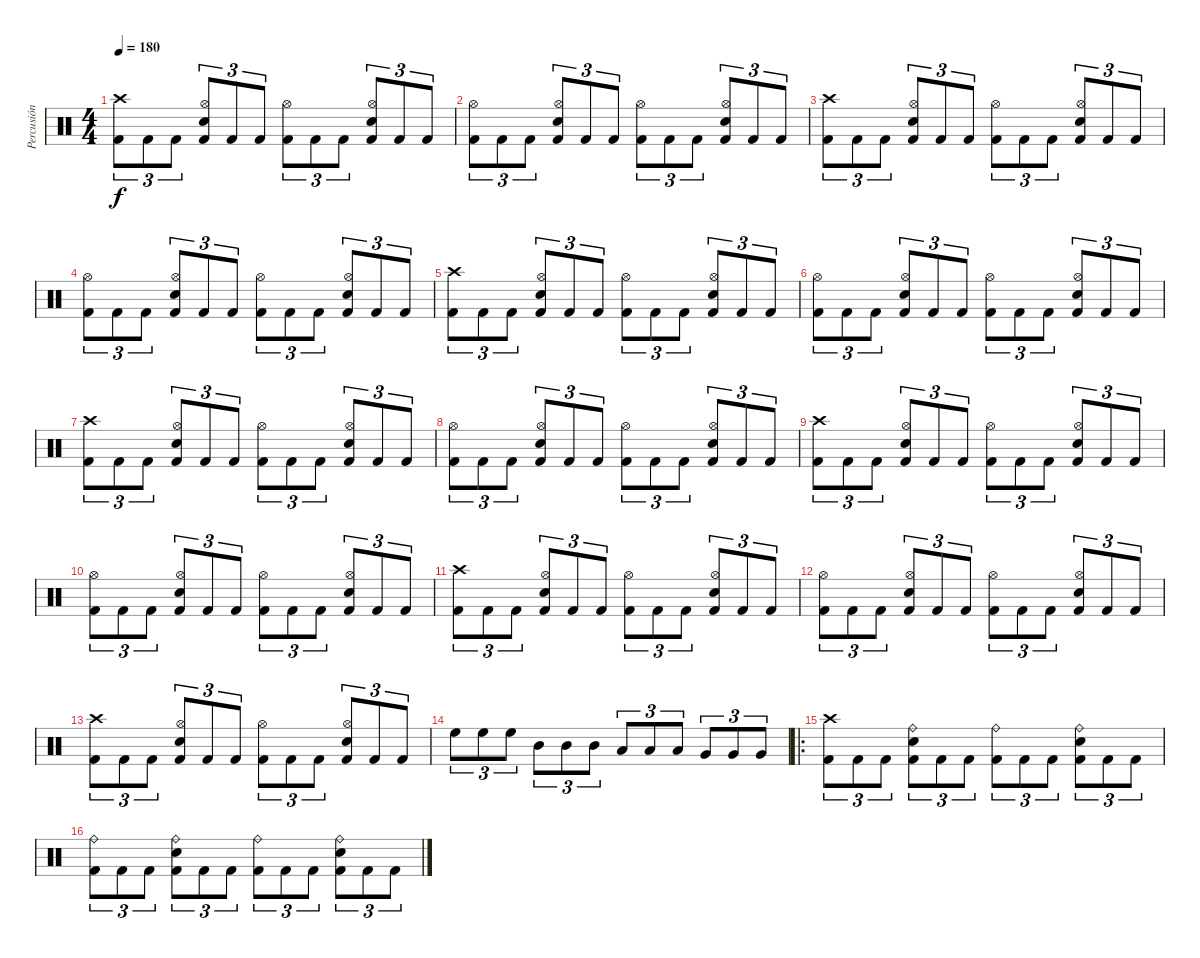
\track ("Percusión" "Percusión") {instrument percussion}
\staff {score}
\articulation defaults
\ts (4 4)
\tempo 180
\clef neutral
\ks c
("Crash high (hit)" "Kick (hit) 2").8{tu (3 2) dy f} "Kick (hit) 2".8{tu (3 2)} "Kick (hit) 2".8{tu (3 2)} ("Hi-Hat (open)" "Kick (hit) 2" "Electric Snare (hit)").8{tu (3 2)} "Kick (hit) 2".8{tu (3 2)} "Kick (hit) 2".8{tu (3 2)} ("Hi-Hat (open)" "Kick (hit) 2").8{tu (3 2)} "Kick (hit) 2".8{tu (3 2)} "Kick (hit) 2".8{tu (3 2)} ("Hi-Hat (open)" "Kick (hit) 2" "Electric Snare (hit)").8{tu (3 2)} "Kick (hit) 2".8{tu (3 2)} "Kick (hit) 2".8{tu (3 2)} |
("Hi-Hat (open)" "Kick (hit) 2").8{tu (3 2)} "Kick (hit) 2".8{tu (3 2)} "Kick (hit) 2".8{tu (3 2)} ("Hi-Hat (open)" "Kick (hit) 2" "Electric Snare (hit)").8{tu (3 2)} "Kick (hit) 2".8{tu (3 2)} "Kick (hit) 2".8{tu (3 2)} ("Hi-Hat (open)" "Kick (hit) 2").8{tu (3 2)} "Kick (hit) 2".8{tu (3 2)} "Kick (hit) 2".8{tu (3 2)} ("Hi-Hat (open)" "Kick (hit) 2" "Electric Snare (hit)").8{tu (3 2)} "Kick (hit) 2".8{tu (3 2)} "Kick (hit) 2".8{tu (3 2)} |
("Crash high (hit)" "Kick (hit) 2").8{tu (3 2)} "Kick (hit) 2".8{tu (3 2)} "Kick (hit) 2".8{tu (3 2)} ("Hi-Hat (open)" "Kick (hit) 2" "Electric Snare (hit)").8{tu (3 2)} "Kick (hit) 2".8{tu (3 2)} "Kick (hit) 2".8{tu (3 2)} ("Hi-Hat (open)" "Kick (hit) 2").8{tu (3 2)} "Kick (hit) 2".8{tu (3 2)} "Kick (hit) 2".8{tu (3 2)} ("Hi-Hat (open)" "Kick (hit) 2" "Electric Snare (hit)").8{tu (3 2)} "Kick (hit) 2".8{tu (3 2)} "Kick (hit) 2".8{tu (3 2)} |
("Hi-Hat (open)" "Kick (hit) 2").8{tu (3 2)} "Kick (hit) 2".8{tu (3 2)} "Kick (hit) 2".8{tu (3 2)} ("Hi-Hat (open)" "Kick (hit) 2" "Electric Snare (hit)").8{tu (3 2)} "Kick (hit) 2".8{tu (3 2)} "Kick (hit) 2".8{tu (3 2)} ("Hi-Hat (open)" "Kick (hit) 2").8{tu (3 2)} "Kick (hit) 2".8{tu (3 2)} "Kick (hit) 2".8{tu (3 2)} ("Hi-Hat (open)" "Kick (hit) 2" "Electric Snare (hit)").8{tu (3 2)} "Kick (hit) 2".8{tu (3 2)} "Kick (hit) 2".8{tu (3 2)} |
("Crash high (hit)" "Kick (hit) 2").8{tu (3 2)} "Kick (hit) 2".8{tu (3 2)} "Kick (hit) 2".8{tu (3 2)} ("Hi-Hat (open)" "Kick (hit) 2" "Electric Snare (hit)").8{tu (3 2)} "Kick (hit) 2".8{tu (3 2)} "Kick (hit) 2".8{tu (3 2)} ("Hi-Hat (open)" "Kick (hit) 2").8{tu (3 2)} "Kick (hit) 2".8{tu (3 2)} "Kick (hit) 2".8{tu (3 2)} ("Hi-Hat (open)" "Kick (hit) 2" "Electric Snare (hit)").8{tu (3 2)} "Kick (hit) 2".8{tu (3 2)} "Kick (hit) 2".8{tu (3 2)} |
("Hi-Hat (open)" "Kick (hit) 2").8{tu (3 2)} "Kick (hit) 2".8{tu (3 2)} "Kick (hit) 2".8{tu (3 2)} ("Hi-Hat (open)" "Kick (hit) 2" "Electric Snare (hit)").8{tu (3 2)} "Kick (hit) 2".8{tu (3 2)} "Kick (hit) 2".8{tu (3 2)} ("Hi-Hat (open)" "Kick (hit) 2").8{tu (3 2)} "Kick (hit) 2".8{tu (3 2)} "Kick (hit) 2".8{tu (3 2)} ("Hi-Hat (open)" "Kick (hit) 2" "Electric Snare (hit)").8{tu (3 2)} "Kick (hit) 2".8{tu (3 2)} "Kick (hit) 2".8{tu (3 2)} |
("Crash high (hit)" "Kick (hit) 2").8{tu (3 2)} "Kick (hit) 2".8{tu (3 2)} "Kick (hit) 2".8{tu (3 2)} ("Hi-Hat (open)" "Kick (hit) 2" "Electric Snare (hit)").8{tu (3 2)} "Kick (hit) 2".8{tu (3 2)} "Kick (hit) 2".8{tu (3 2)} ("Hi-Hat (open)" "Kick (hit) 2").8{tu (3 2)} "Kick (hit) 2".8{tu (3 2)} "Kick (hit) 2".8{tu (3 2)} ("Hi-Hat (open)" "Kick (hit) 2" "Electric Snare (hit)").8{tu (3 2)} "Kick (hit) 2".8{tu (3 2)} "Kick (hit) 2".8{tu (3 2)} |
("Hi-Hat (open)" "Kick (hit) 2").8{tu (3 2)} "Kick (hit) 2".8{tu (3 2)} "Kick (hit) 2".8{tu (3 2)} ("Hi-Hat (open)" "Kick (hit) 2" "Electric Snare (hit)").8{tu (3 2)} "Kick (hit) 2".8{tu (3 2)} "Kick (hit) 2".8{tu (3 2)} ("Hi-Hat (open)" "Kick (hit) 2").8{tu (3 2)} "Kick (hit) 2".8{tu (3 2)} "Kick (hit) 2".8{tu (3 2)} ("Hi-Hat (open)" "Kick (hit) 2" "Electric Snare (hit)").8{tu (3 2)} "Kick (hit) 2".8{tu (3 2)} "Kick (hit) 2".8{tu (3 2)} |
("Crash high (hit)" "Kick (hit) 2").8{tu (3 2)} "Kick (hit) 2".8{tu (3 2)} "Kick (hit) 2".8{tu (3 2)} ("Hi-Hat (open)" "Kick (hit) 2" "Electric Snare (hit)").8{tu (3 2)} "Kick (hit) 2".8{tu (3 2)} "Kick (hit) 2".8{tu (3 2)} ("Hi-Hat (open)" "Kick (hit) 2").8{tu (3 2)} "Kick (hit) 2".8{tu (3 2)} "Kick (hit) 2".8{tu (3 2)} ("Hi-Hat (open)" "Kick (hit) 2" "Electric Snare (hit)").8{tu (3 2)} "Kick (hit) 2".8{tu (3 2)} "Kick (hit) 2".8{tu (3 2)} |
("Hi-Hat (open)" "Kick (hit) 2").8{tu (3 2)} "Kick (hit) 2".8{tu (3 2)} "Kick (hit) 2".8{tu (3 2)} ("Hi-Hat (open)" "Kick (hit) 2" "Electric Snare (hit)").8{tu (3 2)} "Kick (hit) 2".8{tu (3 2)} "Kick (hit) 2".8{tu (3 2)} ("Hi-Hat (open)" "Kick (hit) 2").8{tu (3 2)} "Kick (hit) 2".8{tu (3 2)} "Kick (hit) 2".8{tu (3 2)} ("Hi-Hat (open)" "Kick (hit) 2" "Electric Snare (hit)").8{tu (3 2)} "Kick (hit) 2".8{tu (3 2)} "Kick (hit) 2".8{tu (3 2)} |
("Crash high (hit)" "Kick (hit) 2").8{tu (3 2)} "Kick (hit) 2".8{tu (3 2)} "Kick (hit) 2".8{tu (3 2)} ("Hi-Hat (open)" "Kick (hit) 2" "Electric Snare (hit)").8{tu (3 2)} "Kick (hit) 2".8{tu (3 2)} "Kick (hit) 2".8{tu (3 2)} ("Hi-Hat (open)" "Kick (hit) 2").8{tu (3 2)} "Kick (hit) 2".8{tu (3 2)} "Kick (hit) 2".8{tu (3 2)} ("Hi-Hat (open)" "Kick (hit) 2" "Electric Snare (hit)").8{tu (3 2)} "Kick (hit) 2".8{tu (3 2)} "Kick (hit) 2".8{tu (3 2)} |
("Hi-Hat (open)" "Kick (hit) 2").8{tu (3 2)} "Kick (hit) 2".8{tu (3 2)} "Kick (hit) 2".8{tu (3 2)} ("Hi-Hat (open)" "Kick (hit) 2" "Electric Snare (hit)").8{tu (3 2)} "Kick (hit) 2".8{tu (3 2)} "Kick (hit) 2".8{tu (3 2)} ("Hi-Hat (open)" "Kick (hit) 2").8{tu (3 2)} "Kick (hit) 2".8{tu (3 2)} "Kick (hit) 2".8{tu (3 2)} ("Hi-Hat (open)" "Kick (hit) 2" "Electric Snare (hit)").8{tu (3 2)} "Kick (hit) 2".8{tu (3 2)} "Kick (hit) 2".8{tu (3 2)} |
("Crash high (hit)" "Kick (hit) 2").8{tu (3 2)} "Kick (hit) 2".8{tu (3 2)} "Kick (hit) 2".8{tu (3 2)} ("Hi-Hat (open)" "Kick (hit) 2" "Electric Snare (hit)").8{tu (3 2)} "Kick (hit) 2".8{tu (3 2)} "Kick (hit) 2".8{tu (3 2)} ("Hi-Hat (open)" "Kick (hit) 2").8{tu (3 2)} "Kick (hit) 2".8{tu (3 2)} "Kick (hit) 2".8{tu (3 2)} ("Hi-Hat (open)" "Kick (hit) 2" "Electric Snare (hit)").8{tu (3 2)} "Kick (hit) 2".8{tu (3 2)} "Kick (hit) 2".8{tu (3 2)} |
"High Floor Tom (hit)".8{tu (3 2)} "High Floor Tom (hit)".8{tu (3 2)} "High Floor Tom (hit)".8{tu (3 2)} "Mid Tom (hit)".8{tu (3 2)} "Mid Tom (hit)".8{tu (3 2)} "Mid Tom (hit)".8{tu (3 2)} "Low Tom (hit)".8{tu (3 2)} "Low Tom (hit)".8{tu (3 2)} "Low Tom (hit)".8{tu (3 2)} "Very Low Tom (hit)".8{tu (3 2)} "Very Low Tom (hit)".8{tu (3 2)} "Very Low Tom (hit)".8{tu (3 2)} |
\ro
("Crash high (hit)" "Kick (hit) 2").8{tu (3 2)} "Kick (hit) 2".8{tu (3 2)} "Kick (hit) 2".8{tu (3 2)} ("Ride (bell)" "Kick (hit) 2" "Electric Snare (hit)").8{tu (3 2)} "Kick (hit) 2".8{tu (3 2)} "Kick (hit) 2".8{tu (3 2)} ("Ride (bell)" "Kick (hit) 2").8{tu (3 2)} "Kick (hit) 2".8{tu (3 2)} "Kick (hit) 2".8{tu (3 2)} ("Ride (bell)" "Kick (hit) 2" "Electric Snare (hit)").8{tu (3 2)} "Kick (hit) 2".8{tu (3 2)} "Kick (hit) 2".8{tu (3 2)} |
("Ride (bell)" "Kick (hit) 2").8{tu (3 2)} "Kick (hit) 2".8{tu (3 2)} "Kick (hit) 2".8{tu (3 2)} ("Ride (bell)" "Kick (hit) 2" "Electric Snare (hit)").8{tu (3 2)} "Kick (hit) 2".8{tu (3 2)} "Kick (hit) 2".8{tu (3 2)} ("Ride (bell)" "Kick (hit) 2").8{tu (3 2)} "Kick (hit) 2".8{tu (3 2)} "Kick (hit) 2".8{tu (3 2)} ("Ride (bell)" "Kick (hit) 2" "Electric Snare (hit)").8{tu (3 2)} "Kick (hit) 2".8{tu (3 2)} "Kick (hit) 2".8{tu (3 2)}
